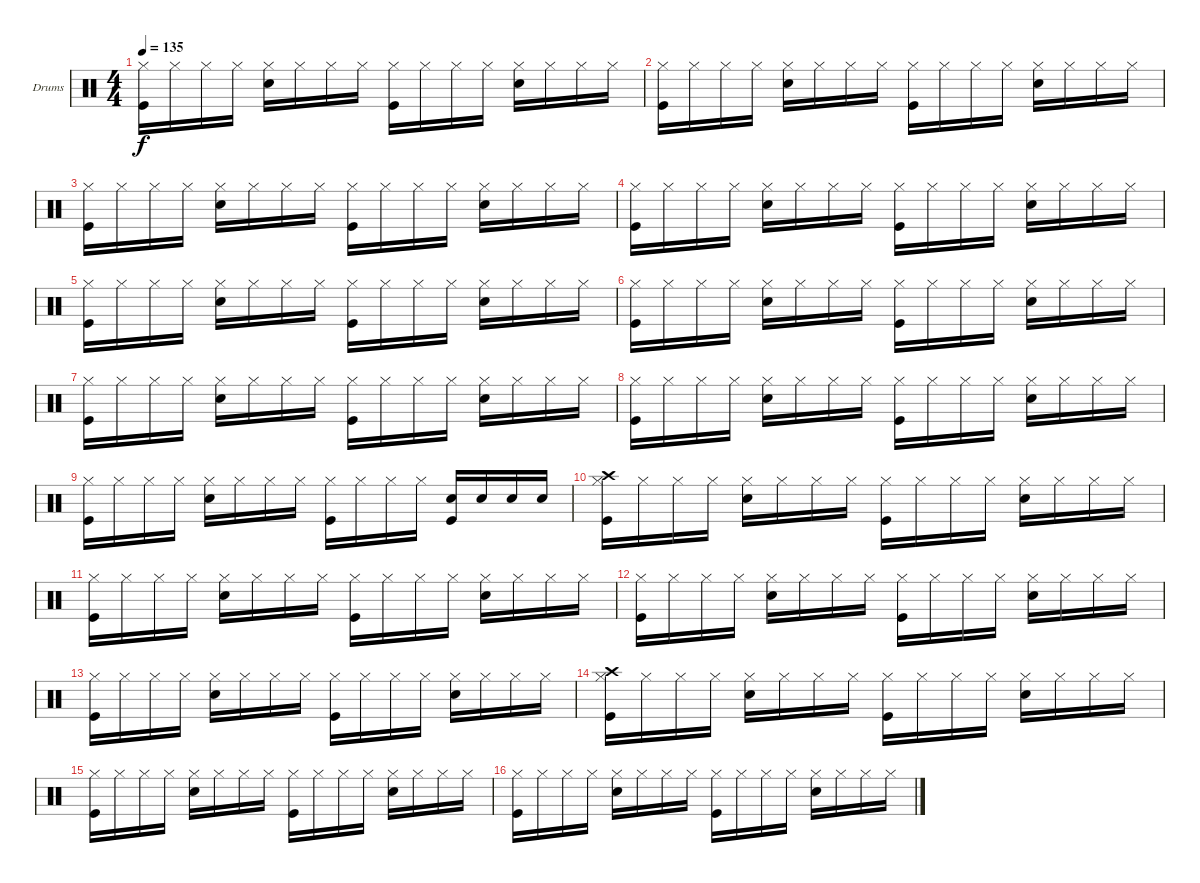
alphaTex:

\bracketExtendMode groupsimilarinstruments
\firstSystemTrackNameOrientation horizontal
\otherSystemsTrackNameOrientation horizontal
\track ("Ударные" "Drums") {instrument percussion}
\staff {score}
\articulation defaults
\ts (4 4)
\tempo 135
\clef neutral
\ks c
("Hi-Hat (closed)" "Kick (hit)").16{dy f} "Hi-Hat (closed)".16 "Hi-Hat (closed)".16 "Hi-Hat (closed)".16 ("Hi-Hat (closed)" "Snare (hit) 2").16 "Hi-Hat (closed)".16 "Hi-Hat (closed)".16 "Hi-Hat (closed)".16 ("Hi-Hat (closed)" "Kick (hit)").16 "Hi-Hat (closed)".16 "Hi-Hat (closed)".16 "Hi-Hat (closed)".16 ("Hi-Hat (closed)" "Snare (hit) 2").16 "Hi-Hat (closed)".16 "Hi-Hat (closed)".16 "Hi-Hat (closed)".16 |
("Hi-Hat (closed)" "Kick (hit)").16 "Hi-Hat (closed)".16 "Hi-Hat (closed)".16 "Hi-Hat (closed)".16 ("Hi-Hat (closed)" "Snare (hit) 2").16 "Hi-Hat (closed)".16 "Hi-Hat (closed)".16 "Hi-Hat (closed)".16 ("Hi-Hat (closed)" "Kick (hit)").16 "Hi-Hat (closed)".16 "Hi-Hat (closed)".16 "Hi-Hat (closed)".16 ("Hi-Hat (closed)" "Snare (hit) 2").16 "Hi-Hat (closed)".16 "Hi-Hat (closed)".16 "Hi-Hat (closed)".16 |
("Hi-Hat (closed)" "Kick (hit)").16 "Hi-Hat (closed)".16 "Hi-Hat (closed)".16 "Hi-Hat (closed)".16 ("Hi-Hat (closed)" "Snare (hit) 2").16 "Hi-Hat (closed)".16 "Hi-Hat (closed)".16 "Hi-Hat (closed)".16 ("Hi-Hat (closed)" "Kick (hit)").16 "Hi-Hat (closed)".16 "Hi-Hat (closed)".16 "Hi-Hat (closed)".16 ("Hi-Hat (closed)" "Snare (hit) 2").16 "Hi-Hat (closed)".16 "Hi-Hat (closed)".16 "Hi-Hat (closed)".16 |
("Hi-Hat (closed)" "Kick (hit)").16 "Hi-Hat (closed)".16 "Hi-Hat (closed)".16 "Hi-Hat (closed)".16 ("Hi-Hat (closed)" "Snare (hit) 2").16 "Hi-Hat (closed)".16 "Hi-Hat (closed)".16 "Hi-Hat (closed)".16 ("Hi-Hat (closed)" "Kick (hit)").16 "Hi-Hat (closed)".16 "Hi-Hat (closed)".16 "Hi-Hat (closed)".16 ("Hi-Hat (closed)" "Snare (hit) 2").16 "Hi-Hat (closed)".16 "Hi-Hat (closed)".16 "Hi-Hat (closed)".16 |
("Hi-Hat (closed)" "Kick (hit)").16 "Hi-Hat (closed)".16 "Hi-Hat (closed)".16 "Hi-Hat (closed)".16 ("Hi-Hat (closed)" "Snare (hit) 2").16 "Hi-Hat (closed)".16 "Hi-Hat (closed)".16 "Hi-Hat (closed)".16 ("Hi-Hat (closed)" "Kick (hit)").16 "Hi-Hat (closed)".16 "Hi-Hat (closed)".16 "Hi-Hat (closed)".16 ("Hi-Hat (closed)" "Snare (hit) 2").16 "Hi-Hat (closed)".16 "Hi-Hat (closed)".16 "Hi-Hat (closed)".16 |
("Hi-Hat (closed)" "Kick (hit)").16 "Hi-Hat (closed)".16 "Hi-Hat (closed)".16 "Hi-Hat (closed)".16 ("Hi-Hat (closed)" "Snare (hit) 2").16 "Hi-Hat (closed)".16 "Hi-Hat (closed)".16 "Hi-Hat (closed)".16 ("Hi-Hat (closed)" "Kick (hit)").16 "Hi-Hat (closed)".16 "Hi-Hat (closed)".16 "Hi-Hat (closed)".16 ("Hi-Hat (closed)" "Snare (hit) 2").16 "Hi-Hat (closed)".16 "Hi-Hat (closed)".16 "Hi-Hat (closed)".16 |
("Hi-Hat (closed)" "Kick (hit)").16 "Hi-Hat (closed)".16 "Hi-Hat (closed)".16 "Hi-Hat (closed)".16 ("Hi-Hat (closed)" "Snare (hit) 2").16 "Hi-Hat (closed)".16 "Hi-Hat (closed)".16 "Hi-Hat (closed)".16 ("Hi-Hat (closed)" "Kick (hit)").16 "Hi-Hat (closed)".16 "Hi-Hat (closed)".16 "Hi-Hat (closed)".16 ("Hi-Hat (closed)" "Snare (hit) 2").16 "Hi-Hat (closed)".16 "Hi-Hat (closed)".16 "Hi-Hat (closed)".16 |
("Hi-Hat (closed)" "Kick (hit)").16 "Hi-Hat (closed)".16 "Hi-Hat (closed)".16 "Hi-Hat (closed)".16 ("Hi-Hat (closed)" "Snare (hit) 2").16 "Hi-Hat (closed)".16 "Hi-Hat (closed)".16 "Hi-Hat (closed)".16 ("Hi-Hat (closed)" "Kick (hit)").16 "Hi-Hat (closed)".16 "Hi-Hat (closed)".16 "Hi-Hat (closed)".16 ("Hi-Hat (closed)" "Snare (hit) 2").16 "Hi-Hat (closed)".16 "Hi-Hat (closed)".16 "Hi-Hat (closed)".16 |
("Hi-Hat (closed)" "Kick (hit)").16 "Hi-Hat (closed)".16 "Hi-Hat (closed)".16 "Hi-Hat (closed)".16 ("Hi-Hat (closed)" "Snare (hit) 2").16 "Hi-Hat (closed)".16 "Hi-Hat (closed)".16 "Hi-Hat (closed)".16 ("Hi-Hat (closed)" "Kick (hit)").16 "Hi-Hat (closed)".16 "Hi-Hat (closed)".16 "Hi-Hat (closed)".16 ("Snare (hit) 2" "Kick (hit)").16 "Snare (hit) 2".16 "Snare (hit) 2".16 "Snare (hit) 2".16 |
("Crash high (hit)" "Hi-Hat (closed)" "Kick (hit)").16 "Hi-Hat (closed)".16 "Hi-Hat (closed)".16 "Hi-Hat (closed)".16 ("Hi-Hat (closed)" "Snare (hit) 2").16 "Hi-Hat (closed)".16 "Hi-Hat (closed)".16 "Hi-Hat (closed)".16 ("Hi-Hat (closed)" "Kick (hit)").16 "Hi-Hat (closed)".16 "Hi-Hat (closed)".16 "Hi-Hat (closed)".16 ("Hi-Hat (closed)" "Snare (hit) 2").16 "Hi-Hat (closed)".16 "Hi-Hat (closed)".16 "Hi-Hat (closed)".16 |
("Hi-Hat (closed)" "Kick (hit)").16 "Hi-Hat (closed)".16 "Hi-Hat (closed)".16 "Hi-Hat (closed)".16 ("Hi-Hat (closed)" "Snare (hit) 2").16 "Hi-Hat (closed)".16 "Hi-Hat (closed)".16 "Hi-Hat (closed)".16 ("Hi-Hat (closed)" "Kick (hit)").16 "Hi-Hat (closed)".16 "Hi-Hat (closed)".16 "Hi-Hat (closed)".16 ("Hi-Hat (closed)" "Snare (hit) 2").16 "Hi-Hat (closed)".16 "Hi-Hat (closed)".16 "Hi-Hat (closed)".16 |
("Hi-Hat (closed)" "Kick (hit)").16 "Hi-Hat (closed)".16 "Hi-Hat (closed)".16 "Hi-Hat (closed)".16 ("Hi-Hat (closed)" "Snare (hit) 2").16 "Hi-Hat (closed)".16 "Hi-Hat (closed)".16 "Hi-Hat (closed)".16 ("Hi-Hat (closed)" "Kick (hit)").16 "Hi-Hat (closed)".16 "Hi-Hat (closed)".16 "Hi-Hat (closed)".16 ("Hi-Hat (closed)" "Snare (hit) 2").16 "Hi-Hat (closed)".16 "Hi-Hat (closed)".16 "Hi-Hat (closed)".16 |
("Hi-Hat (closed)" "Kick (hit)").16 "Hi-Hat (closed)".16 "Hi-Hat (closed)".16 "Hi-Hat (closed)".16 ("Hi-Hat (closed)" "Snare (hit) 2").16 "Hi-Hat (closed)".16 "Hi-Hat (closed)".16 "Hi-Hat (closed)".16 ("Hi-Hat (closed)" "Kick (hit)").16 "Hi-Hat (closed)".16 "Hi-Hat (closed)".16 "Hi-Hat (closed)".16 ("Hi-Hat (closed)" "Snare (hit) 2").16 "Hi-Hat (closed)".16 "Hi-Hat (closed)".16 "Hi-Hat (closed)".16 |
("Crash high (hit)" "Hi-Hat (closed)" "Kick (hit)").16 "Hi-Hat (closed)".16 "Hi-Hat (closed)".16 "Hi-Hat (closed)".16 ("Hi-Hat (closed)" "Snare (hit) 2").16 "Hi-Hat (closed)".16 "Hi-Hat (closed)".16 "Hi-Hat (closed)".16 ("Hi-Hat (closed)" "Kick (hit)").16 "Hi-Hat (closed)".16 "Hi-Hat (closed)".16 "Hi-Hat (closed)".16 ("Hi-Hat (closed)" "Snare (hit) 2").16 "Hi-Hat (closed)".16 "Hi-Hat (closed)".16 "Hi-Hat (closed)".16 |
("Hi-Hat (closed)" "Kick (hit)").16 "Hi-Hat (closed)".16 "Hi-Hat (closed)".16 "Hi-Hat (closed)".16 ("Hi-Hat (closed)" "Snare (hit) 2").16 "Hi-Hat (closed)".16 "Hi-Hat (closed)".16 "Hi-Hat (closed)".16 ("Hi-Hat (closed)" "Kick (hit)").16 "Hi-Hat (closed)".16 "Hi-Hat (closed)".16 "Hi-Hat (closed)".16 ("Hi-Hat (closed)" "Snare (hit) 2").16 "Hi-Hat (closed)".16 "Hi-Hat (closed)".16 "Hi-Hat (closed)".16 |
("Hi-Hat (closed)" "Kick (hit)").16 "Hi-Hat (closed)".16 "Hi-Hat (closed)".16 "Hi-Hat (closed)".16 ("Hi-Hat (closed)" "Snare (hit) 2").16 "Hi-Hat (closed)".16 "Hi-Hat (closed)".16 "Hi-Hat (closed)".16 ("Hi-Hat (closed)" "Kick (hit)").16 "Hi-Hat (closed)".16 "Hi-Hat (closed)".16 "Hi-Hat (closed)".16 ("Hi-Hat (closed)" "Snare (hit) 2").16 "Hi-Hat (closed)".16 "Hi-Hat (closed)".16 "Hi-Hat (closed)".16
